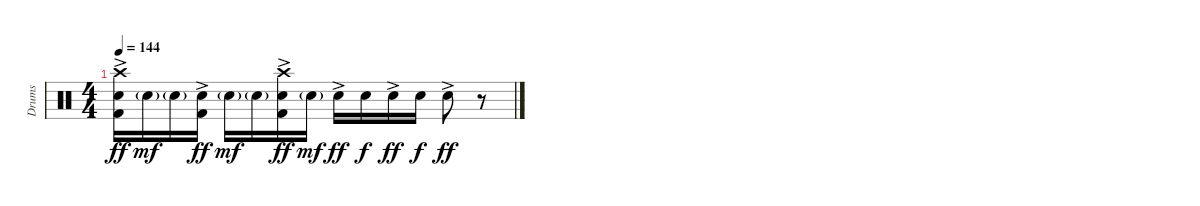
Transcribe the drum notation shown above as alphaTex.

\track ("Drums" "Drums") {instrument percussion}
\staff {score}
\articulation defaults
\ts (4 4)
\tempo 144
\clef neutral
\ks c
("Crash high (hit)" "Electric Snare (hit)"{ac} "Kick (hit) 2").16{dy ff} "Electric Snare (hit)"{g}.16{dy mf} "Electric Snare (hit)"{g}.16 ("Electric Snare (hit)"{ac} "Kick (hit) 2").16{dy ff} "Electric Snare (hit)"{g}.16{dy mf} "Electric Snare (hit)"{g}.16 ("Crash high (hit)" "Electric Snare (hit)"{ac} "Kick (hit) 2").16{dy ff} "Electric Snare (hit)"{g}.16{dy mf} "Electric Snare (hit)"{ac}.16{dy ff} "Electric Snare (hit)".16{dy f} "Electric Snare (hit)"{ac}.16{dy ff} "Electric Snare (hit)".16{dy f} "Electric Snare (hit)"{ac}.8{dy ff} r.8
